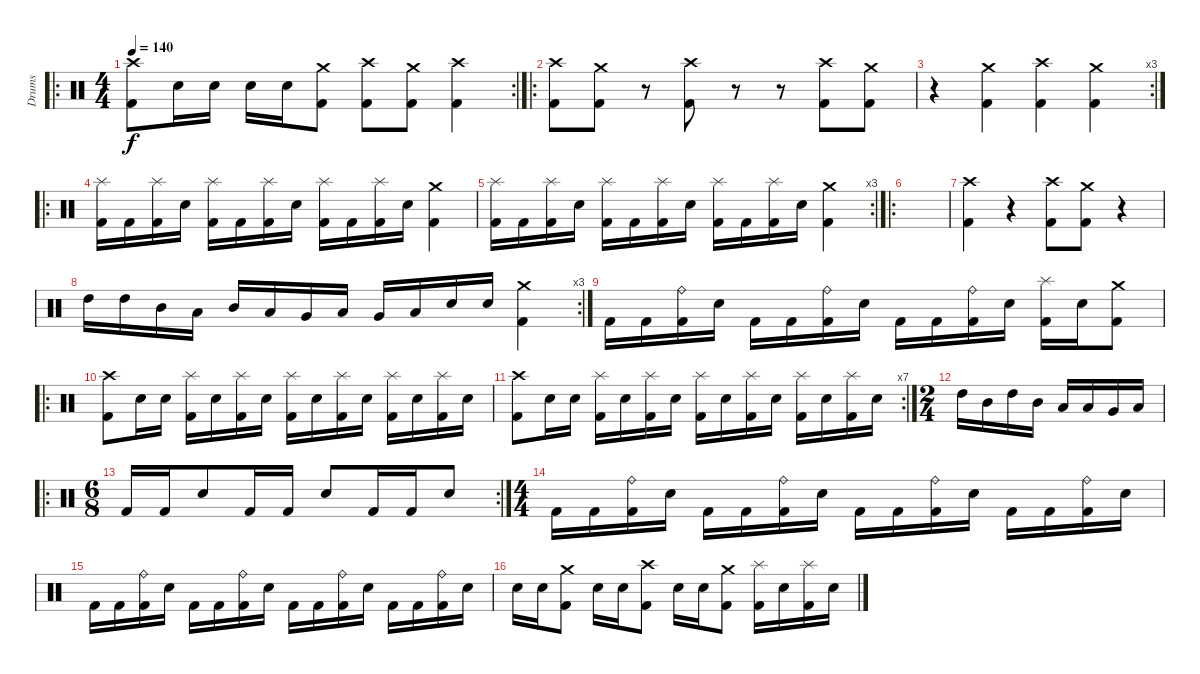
\track ("Drums" "Drums") {instrument percussion}
\staff {score}
\articulation defaults
\ro
\rc 2
\ts (4 4)
\tempo 140
\clef neutral
\ks c
("Crash high (hit)" "Kick (hit) 2").8{dy f} "Electric Snare (hit)".16 "Electric Snare (hit)".16 "Electric Snare (hit)".16 "Electric Snare (hit)".16 ("Crash medium (hit)" "Kick (hit) 2").8 ("Crash high (hit)" "Kick (hit) 2").8 ("Crash medium (hit)" "Kick (hit) 2").8 ("Crash high (hit)" "Kick (hit) 2").4 |
\ro
("Crash high (hit)" "Kick (hit) 2").8 ("Crash medium (hit)" "Kick (hit) 2").8 r.8 ("Crash high (hit)" "Kick (hit) 2").8 r.8 r.8 ("Crash high (hit)" "Kick (hit) 2").8 ("Crash medium (hit)" "Kick (hit) 2").8 |
\rc 3
r.4 ("Crash medium (hit)" "Kick (hit) 2").4 ("Crash high (hit)" "Kick (hit) 2").4 ("Crash medium (hit)" "Kick (hit) 2").4 |
\ro
("Splash (hit)" "Kick (hit) 2").16 "Kick (hit) 2".16 ("Splash (hit)" "Kick (hit) 2").16 "Electric Snare (hit)".16 ("Splash (hit)" "Kick (hit) 2").16 "Kick (hit) 2".16 ("Splash (hit)" "Kick (hit) 2").16 "Electric Snare (hit)".16 ("Splash (hit)" "Kick (hit) 2").16 "Kick (hit) 2".16 ("Splash (hit)" "Kick (hit) 2").16 "Electric Snare (hit)".16 ("Crash medium (hit)" "Kick (hit) 2").4 |
\rc 3
("Splash (hit)" "Kick (hit) 2").16 "Kick (hit) 2".16 ("Splash (hit)" "Kick (hit) 2").16 "Electric Snare (hit)".16 ("Splash (hit)" "Kick (hit) 2").16 "Kick (hit) 2".16 ("Splash (hit)" "Kick (hit) 2").16 "Electric Snare (hit)".16 ("Splash (hit)" "Kick (hit) 2").16 "Kick (hit) 2".16 ("Splash (hit)" "Kick (hit) 2").16 "Electric Snare (hit)".16 ("Crash medium (hit)" "Kick (hit) 2").4 |
\ro
|
("Crash high (hit)" "Kick (hit) 2").4 r.4 ("Crash high (hit)" "Kick (hit) 2").8 ("Crash medium (hit)" "Kick (hit) 2").8 r.4 |
\rc 3 "High Tom (hit)".16 "High Tom (hit)".16 "Mid Tom (hit)".16 "Low Tom (hit)".16 "Mid Tom (hit)".16 "Low Tom (hit)".16 "Very Low Tom (hit)".16 "Low Tom (hit)".16 "Very Low Tom (hit)".16 "Low Floor Tom (hit)".16 "Electric Snare (hit)".16 "Electric Snare (hit)".16
("Crash medium (hit)" "Kick (hit) 2").4 |
"Kick (hit) 2".16 "Kick (hit) 2".16 ("Ride (bell)" "Kick (hit) 2").16 "Electric Snare (hit)".16 "Kick (hit) 2".16 "Kick (hit) 2".16 ("Ride (bell)" "Kick (hit) 2").16 "Electric Snare (hit)".16 "Kick (hit) 2".16 "Kick (hit) 2".16 ("Ride (bell)" "Kick (hit) 2").16 "Electric Snare (hit)".16 ("Splash (hit)" "Kick (hit) 2").16 "Electric Snare (hit)".16 ("Crash medium (hit)" "Kick (hit) 2").8 |
\ro
("Crash high (hit)" "Kick (hit) 2").8 "Electric Snare (hit)".16 "Electric Snare (hit)".16 ("Splash (hit)" "Kick (hit) 2").16 "Electric Snare (hit)".16 ("Splash (hit)" "Kick (hit) 2").16 "Electric Snare (hit)".16 ("Splash (hit)" "Kick (hit) 2").16 "Electric Snare (hit)".16 ("Splash (hit)" "Kick (hit) 2").16 "Electric Snare (hit)".16 ("Splash (hit)" "Kick (hit) 2").16 "Electric Snare (hit)".16 ("Splash (hit)" "Kick (hit) 2").16 "Electric Snare (hit)".16 |
\rc 7
("Crash high (hit)" "Kick (hit) 2").8 "Electric Snare (hit)".16 "Electric Snare (hit)".16 ("Splash (hit)" "Kick (hit) 2").16 "Electric Snare (hit)".16 ("Splash (hit)" "Kick (hit) 2").16 "Electric Snare (hit)".16 ("Splash (hit)" "Kick (hit) 2").16 "Electric Snare (hit)".16 ("Splash (hit)" "Kick (hit) 2").16 "Electric Snare (hit)".16 ("Splash (hit)" "Kick (hit) 2").16 "Electric Snare (hit)".16 ("Splash (hit)" "Kick (hit) 2").16 "Electric Snare (hit)".16 |
\ts (2 4)
"High Tom (hit)".16 "Mid Tom (hit)".16 "High Tom (hit)".16 "Mid Tom (hit)".16 "Low Tom (hit)".16 "Low Tom (hit)".16 "Very Low Tom (hit)".16 "Low Floor Tom (hit)".16 |
\ro
\rc 2
\ts (6 8)
"Kick (hit) 2".16 "Kick (hit) 2".16 "Electric Snare (hit)".8 "Kick (hit) 2".16 "Kick (hit) 2".16 "Electric Snare (hit)".8 "Kick (hit) 2".16 "Kick (hit) 2".16 "Electric Snare (hit)".8 |
\ts (4 4)
"Kick (hit) 2".16 "Kick (hit) 2".16 ("Ride (bell)" "Kick (hit) 2").16 "Electric Snare (hit)".16 "Kick (hit) 2".16 "Kick (hit) 2".16 ("Ride (bell)" "Kick (hit) 2").16 "Electric Snare (hit)".16 "Kick (hit) 2".16 "Kick (hit) 2".16 ("Ride (bell)" "Kick (hit) 2").16 "Electric Snare (hit)".16 "Kick (hit) 2".16 "Kick (hit) 2".16 ("Ride (bell)" "Kick (hit) 2").16 "Electric Snare (hit)".16 |
"Kick (hit) 2".16 "Kick (hit) 2".16 ("Ride (bell)" "Kick (hit) 2").16 "Electric Snare (hit)".16 "Kick (hit) 2".16 "Kick (hit) 2".16 ("Ride (bell)" "Kick (hit) 2").16 "Electric Snare (hit)".16 "Kick (hit) 2".16 "Kick (hit) 2".16 ("Ride (bell)" "Kick (hit) 2").16 "Electric Snare (hit)".16 "Kick (hit) 2".16 "Kick (hit) 2".16 ("Ride (bell)" "Kick (hit) 2").16 "Electric Snare (hit)".16 |
"Electric Snare (hit)".16 "Electric Snare (hit)".16 ("Crash medium (hit)" "Kick (hit) 2").8 "Electric Snare (hit)".16 "Electric Snare (hit)".16 ("Crash high (hit)" "Kick (hit) 2").8 "Electric Snare (hit)".16 "Electric Snare (hit)".16 ("Crash medium (hit)" "Kick (hit) 2").8 ("Splash (hit)" "Kick (hit) 2").16 "Electric Snare (hit)".16 ("Splash (hit)" "Kick (hit) 2").16 "Electric Snare (hit)".16
